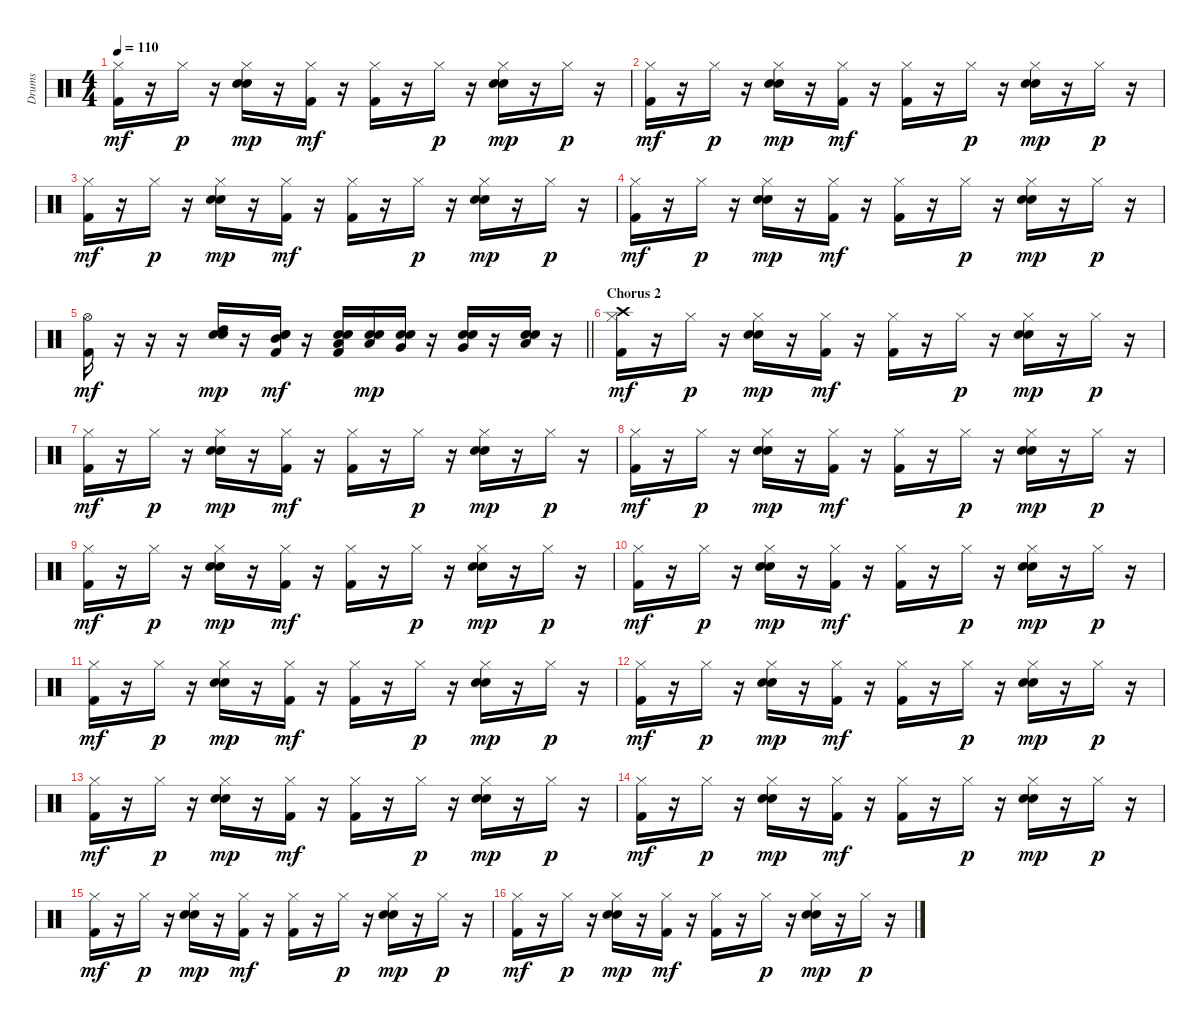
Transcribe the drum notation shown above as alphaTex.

\track ("Drums" "Drums") {instrument percussion}
\staff {score}
\articulation defaults
\ts (4 4)
\tempo 110
\clef neutral
\ks c
("Hi-Hat (closed)" "Kick (hit) 2").16{dy mf} r.16 "Hi-Hat (closed)".16{dy p} r.16 ("Hi-Hat (closed)" "Electric Snare (hit)" "Snare (hit) 2").16{dy mp} r.16 ("Hi-Hat (closed)" "Kick (hit) 2").16{dy mf} r.16 ("Hi-Hat (closed)" "Kick (hit) 2").16 r.16 "Hi-Hat (closed)".16{dy p} r.16 ("Hi-Hat (closed)" "Electric Snare (hit)" "Snare (hit) 2").16{dy mp} r.16 "Hi-Hat (closed)".16{dy p} r.16 |
("Hi-Hat (closed)" "Kick (hit) 2").16{dy mf} r.16 "Hi-Hat (closed)".16{dy p} r.16 ("Hi-Hat (closed)" "Electric Snare (hit)" "Snare (hit) 2").16{dy mp} r.16 ("Hi-Hat (closed)" "Kick (hit) 2").16{dy mf} r.16 ("Hi-Hat (closed)" "Kick (hit) 2").16 r.16 "Hi-Hat (closed)".16{dy p} r.16 ("Hi-Hat (closed)" "Electric Snare (hit)" "Snare (hit) 2").16{dy mp} r.16 "Hi-Hat (closed)".16{dy p} r.16 |
("Hi-Hat (closed)" "Kick (hit) 2").16{dy mf} r.16 "Hi-Hat (closed)".16{dy p} r.16 ("Hi-Hat (closed)" "Electric Snare (hit)" "Snare (hit) 2").16{dy mp} r.16 ("Hi-Hat (closed)" "Kick (hit) 2").16{dy mf} r.16 ("Hi-Hat (closed)" "Kick (hit) 2").16 r.16 "Hi-Hat (closed)".16{dy p} r.16 ("Hi-Hat (closed)" "Electric Snare (hit)" "Snare (hit) 2").16{dy mp} r.16 "Hi-Hat (closed)".16{dy p} r.16 |
("Hi-Hat (closed)" "Kick (hit) 2").16{dy mf} r.16 "Hi-Hat (closed)".16{dy p} r.16 ("Hi-Hat (closed)" "Electric Snare (hit)" "Snare (hit) 2").16{dy mp} r.16 ("Hi-Hat (closed)" "Kick (hit) 2").16{dy mf} r.16 ("Hi-Hat (closed)" "Kick (hit) 2").16 r.16 "Hi-Hat (closed)".16{dy p} r.16 ("Hi-Hat (closed)" "Electric Snare (hit)" "Snare (hit) 2").16{dy mp} r.16 "Hi-Hat (closed)".16{dy p} r.16 |
\barLineRight lightlight
("Hi-Hat (open)" "Kick (hit) 2").16{dy mf} r.16 r.16 r.16 ("Electric Snare (hit)" "Snare (hit) 2" "High Tom (hit)").16{dy mp} r.16 ("Electric Snare (hit)" "Snare (hit) 2" "Mid Tom (hit)" "Kick (hit) 2").16{dy mf} r.16 ("Electric Snare (hit)" "Snare (hit) 2" "Low Tom (hit)" "Kick (hit) 2").16 ("Electric Snare (hit)" "Snare (hit) 2" "Low Tom (hit)").16{dy mp} ("Electric Snare (hit)" "Snare (hit) 2" "Very Low Tom (hit)").16 r.16 ("Electric Snare (hit)" "Snare (hit) 2" "Very Low Tom (hit)").16 r.16 ("Electric Snare (hit)" "Snare (hit) 2" "Low Floor Tom (hit)").16 r.16 |
\section ("" "Chorus 2")
("Crash high (hit)" "Hi-Hat (closed)" "Kick (hit) 2").16{dy mf} r.16 "Hi-Hat (closed)".16{dy p} r.16 ("Hi-Hat (closed)" "Electric Snare (hit)" "Snare (hit) 2").16{dy mp} r.16 ("Hi-Hat (closed)" "Kick (hit) 2").16{dy mf} r.16 ("Hi-Hat (closed)" "Kick (hit) 2").16 r.16 "Hi-Hat (closed)".16{dy p} r.16 ("Hi-Hat (closed)" "Electric Snare (hit)" "Snare (hit) 2").16{dy mp} r.16 "Hi-Hat (closed)".16{dy p} r.16 |
("Hi-Hat (closed)" "Kick (hit) 2").16{dy mf} r.16 "Hi-Hat (closed)".16{dy p} r.16 ("Hi-Hat (closed)" "Electric Snare (hit)" "Snare (hit) 2").16{dy mp} r.16 ("Hi-Hat (closed)" "Kick (hit) 2").16{dy mf} r.16 ("Hi-Hat (closed)" "Kick (hit) 2").16 r.16 "Hi-Hat (closed)".16{dy p} r.16 ("Hi-Hat (closed)" "Electric Snare (hit)" "Snare (hit) 2").16{dy mp} r.16 "Hi-Hat (closed)".16{dy p} r.16 |
("Hi-Hat (closed)" "Kick (hit) 2").16{dy mf} r.16 "Hi-Hat (closed)".16{dy p} r.16 ("Hi-Hat (closed)" "Electric Snare (hit)" "Snare (hit) 2").16{dy mp} r.16 ("Hi-Hat (closed)" "Kick (hit) 2").16{dy mf} r.16 ("Hi-Hat (closed)" "Kick (hit) 2").16 r.16 "Hi-Hat (closed)".16{dy p} r.16 ("Hi-Hat (closed)" "Electric Snare (hit)" "Snare (hit) 2").16{dy mp} r.16 "Hi-Hat (closed)".16{dy p} r.16 |
("Hi-Hat (closed)" "Kick (hit) 2").16{dy mf} r.16 "Hi-Hat (closed)".16{dy p} r.16 ("Hi-Hat (closed)" "Electric Snare (hit)" "Snare (hit) 2").16{dy mp} r.16 ("Hi-Hat (closed)" "Kick (hit) 2").16{dy mf} r.16 ("Hi-Hat (closed)" "Kick (hit) 2").16 r.16 "Hi-Hat (closed)".16{dy p} r.16 ("Hi-Hat (closed)" "Electric Snare (hit)" "Snare (hit) 2").16{dy mp} r.16 "Hi-Hat (closed)".16{dy p} r.16 |
("Hi-Hat (closed)" "Kick (hit) 2").16{dy mf} r.16 "Hi-Hat (closed)".16{dy p} r.16 ("Hi-Hat (closed)" "Electric Snare (hit)" "Snare (hit) 2").16{dy mp} r.16 ("Hi-Hat (closed)" "Kick (hit) 2").16{dy mf} r.16 ("Hi-Hat (closed)" "Kick (hit) 2").16 r.16 "Hi-Hat (closed)".16{dy p} r.16 ("Hi-Hat (closed)" "Electric Snare (hit)" "Snare (hit) 2").16{dy mp} r.16 "Hi-Hat (closed)".16{dy p} r.16 |
("Hi-Hat (closed)" "Kick (hit) 2").16{dy mf} r.16 "Hi-Hat (closed)".16{dy p} r.16 ("Hi-Hat (closed)" "Electric Snare (hit)" "Snare (hit) 2").16{dy mp} r.16 ("Hi-Hat (closed)" "Kick (hit) 2").16{dy mf} r.16 ("Hi-Hat (closed)" "Kick (hit) 2").16 r.16 "Hi-Hat (closed)".16{dy p} r.16 ("Hi-Hat (closed)" "Electric Snare (hit)" "Snare (hit) 2").16{dy mp} r.16 "Hi-Hat (closed)".16{dy p} r.16 |
("Hi-Hat (closed)" "Kick (hit) 2").16{dy mf} r.16 "Hi-Hat (closed)".16{dy p} r.16 ("Hi-Hat (closed)" "Electric Snare (hit)" "Snare (hit) 2").16{dy mp} r.16 ("Hi-Hat (closed)" "Kick (hit) 2").16{dy mf} r.16 ("Hi-Hat (closed)" "Kick (hit) 2").16 r.16 "Hi-Hat (closed)".16{dy p} r.16 ("Hi-Hat (closed)" "Electric Snare (hit)" "Snare (hit) 2").16{dy mp} r.16 "Hi-Hat (closed)".16{dy p} r.16 |
("Hi-Hat (closed)" "Kick (hit) 2").16{dy mf} r.16 "Hi-Hat (closed)".16{dy p} r.16 ("Hi-Hat (closed)" "Electric Snare (hit)" "Snare (hit) 2").16{dy mp} r.16 ("Hi-Hat (closed)" "Kick (hit) 2").16{dy mf} r.16 ("Hi-Hat (closed)" "Kick (hit) 2").16 r.16 "Hi-Hat (closed)".16{dy p} r.16 ("Hi-Hat (closed)" "Electric Snare (hit)" "Snare (hit) 2").16{dy mp} r.16 "Hi-Hat (closed)".16{dy p} r.16 |
("Hi-Hat (closed)" "Kick (hit) 2").16{dy mf} r.16 "Hi-Hat (closed)".16{dy p} r.16 ("Hi-Hat (closed)" "Electric Snare (hit)" "Snare (hit) 2").16{dy mp} r.16 ("Hi-Hat (closed)" "Kick (hit) 2").16{dy mf} r.16 ("Hi-Hat (closed)" "Kick (hit) 2").16 r.16 "Hi-Hat (closed)".16{dy p} r.16 ("Hi-Hat (closed)" "Electric Snare (hit)" "Snare (hit) 2").16{dy mp} r.16 "Hi-Hat (closed)".16{dy p} r.16 |
("Hi-Hat (closed)" "Kick (hit) 2").16{dy mf} r.16 "Hi-Hat (closed)".16{dy p} r.16 ("Hi-Hat (closed)" "Electric Snare (hit)" "Snare (hit) 2").16{dy mp} r.16 ("Hi-Hat (closed)" "Kick (hit) 2").16{dy mf} r.16 ("Hi-Hat (closed)" "Kick (hit) 2").16 r.16 "Hi-Hat (closed)".16{dy p} r.16 ("Hi-Hat (closed)" "Electric Snare (hit)" "Snare (hit) 2").16{dy mp} r.16 "Hi-Hat (closed)".16{dy p} r.16 |
("Hi-Hat (closed)" "Kick (hit) 2").16{dy mf} r.16 "Hi-Hat (closed)".16{dy p} r.16 ("Hi-Hat (closed)" "Electric Snare (hit)" "Snare (hit) 2").16{dy mp} r.16 ("Hi-Hat (closed)" "Kick (hit) 2").16{dy mf} r.16 ("Hi-Hat (closed)" "Kick (hit) 2").16 r.16 "Hi-Hat (closed)".16{dy p} r.16 ("Hi-Hat (closed)" "Electric Snare (hit)" "Snare (hit) 2").16{dy mp} r.16 "Hi-Hat (closed)".16{dy p} r.16
